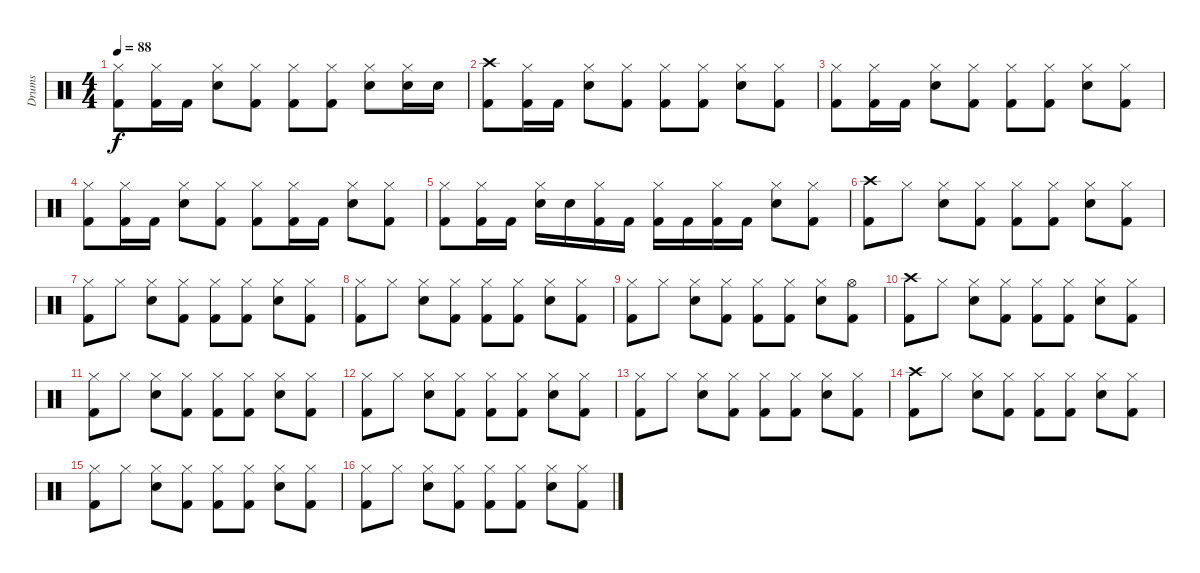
\track ("Drums" "Drums") {instrument percussion}
\staff {score}
\articulation defaults
\ts (4 4)
\tempo 88
\clef neutral
\ks c
("Hi-Hat (closed)" "Kick (hit) 2").8{dy f} ("Hi-Hat (closed)" "Kick (hit) 2").16 "Kick (hit) 2".16 ("Hi-Hat (closed)" "Electric Snare (hit)").8 ("Hi-Hat (closed)" "Kick (hit) 2").8 ("Hi-Hat (closed)" "Kick (hit) 2").8 ("Hi-Hat (closed)" "Kick (hit) 2").8 ("Hi-Hat (closed)" "Electric Snare (hit)").8 ("Hi-Hat (closed)" "Electric Snare (hit)").16 "Electric Snare (hit)".16 |
("Crash high (hit)" "Kick (hit) 2").8 ("Hi-Hat (closed)" "Kick (hit) 2").16 "Kick (hit) 2".16 ("Hi-Hat (closed)" "Electric Snare (hit)").8 ("Hi-Hat (closed)" "Kick (hit) 2").8 ("Hi-Hat (closed)" "Kick (hit) 2").8 ("Hi-Hat (closed)" "Kick (hit) 2").8 ("Hi-Hat (closed)" "Electric Snare (hit)").8 ("Hi-Hat (closed)" "Kick (hit) 2").8 |
("Hi-Hat (closed)" "Kick (hit) 2").8 ("Hi-Hat (closed)" "Kick (hit) 2").16 "Kick (hit) 2".16 ("Hi-Hat (closed)" "Electric Snare (hit)").8 ("Hi-Hat (closed)" "Kick (hit) 2").8 ("Hi-Hat (closed)" "Kick (hit) 2").8 ("Hi-Hat (closed)" "Kick (hit) 2").8 ("Hi-Hat (closed)" "Electric Snare (hit)").8 ("Hi-Hat (closed)" "Kick (hit) 2").8 |
("Hi-Hat (closed)" "Kick (hit) 2").8 ("Hi-Hat (closed)" "Kick (hit) 2").16 "Kick (hit) 2".16 ("Hi-Hat (closed)" "Electric Snare (hit)").8 ("Hi-Hat (closed)" "Kick (hit) 2").8 ("Hi-Hat (closed)" "Kick (hit) 2").8 ("Hi-Hat (closed)" "Kick (hit) 2").16 "Kick (hit) 2".16 ("Hi-Hat (closed)" "Electric Snare (hit)").8 ("Hi-Hat (closed)" "Kick (hit) 2").8 |
("Hi-Hat (closed)" "Kick (hit) 2").8 ("Hi-Hat (closed)" "Kick (hit) 2").16 "Kick (hit) 2".16 ("Hi-Hat (closed)" "Electric Snare (hit)").16 "Electric Snare (hit)".16 ("Hi-Hat (closed)" "Kick (hit) 2").16 "Kick (hit) 2".16 ("Hi-Hat (closed)" "Kick (hit) 2").16 "Kick (hit) 2".16 ("Hi-Hat (closed)" "Kick (hit) 2").16 "Kick (hit) 2".16 ("Hi-Hat (closed)" "Electric Snare (hit)").8 ("Hi-Hat (closed)" "Kick (hit) 2").8 |
("Crash high (hit)" "Kick (hit) 2").8 "Hi-Hat (closed)".8 ("Hi-Hat (closed)" "Electric Snare (hit)").8 ("Hi-Hat (closed)" "Kick (hit) 2").8 ("Hi-Hat (closed)" "Kick (hit) 2").8 ("Hi-Hat (closed)" "Kick (hit) 2").8 ("Hi-Hat (closed)" "Electric Snare (hit)").8 ("Hi-Hat (closed)" "Kick (hit) 2").8 |
("Hi-Hat (closed)" "Kick (hit) 2").8 "Hi-Hat (closed)".8 ("Hi-Hat (closed)" "Electric Snare (hit)").8 ("Hi-Hat (closed)" "Kick (hit) 2").8 ("Hi-Hat (closed)" "Kick (hit) 2").8 ("Hi-Hat (closed)" "Kick (hit) 2").8 ("Hi-Hat (closed)" "Electric Snare (hit)").8 ("Hi-Hat (closed)" "Kick (hit) 2").8 |
("Hi-Hat (closed)" "Kick (hit) 2").8 "Hi-Hat (closed)".8 ("Hi-Hat (closed)" "Electric Snare (hit)").8 ("Hi-Hat (closed)" "Kick (hit) 2").8 ("Hi-Hat (closed)" "Kick (hit) 2").8 ("Hi-Hat (closed)" "Kick (hit) 2").8 ("Hi-Hat (closed)" "Electric Snare (hit)").8 ("Hi-Hat (closed)" "Kick (hit) 2").8 |
("Hi-Hat (closed)" "Kick (hit) 2").8 "Hi-Hat (closed)".8 ("Hi-Hat (closed)" "Electric Snare (hit)").8 ("Hi-Hat (closed)" "Kick (hit) 2").8 ("Hi-Hat (closed)" "Kick (hit) 2").8 ("Hi-Hat (closed)" "Kick (hit) 2").8 ("Hi-Hat (closed)" "Electric Snare (hit)").8 ("Hi-Hat (open)" "Kick (hit) 2").8 |
("Crash high (hit)" "Kick (hit) 2").8 "Hi-Hat (closed)".8 ("Hi-Hat (closed)" "Electric Snare (hit)").8 ("Hi-Hat (closed)" "Kick (hit) 2").8 ("Hi-Hat (closed)" "Kick (hit) 2").8 ("Hi-Hat (closed)" "Kick (hit) 2").8 ("Hi-Hat (closed)" "Electric Snare (hit)").8 ("Hi-Hat (closed)" "Kick (hit) 2").8 |
("Hi-Hat (closed)" "Kick (hit) 2").8 "Hi-Hat (closed)".8 ("Hi-Hat (closed)" "Electric Snare (hit)").8 ("Hi-Hat (closed)" "Kick (hit) 2").8 ("Hi-Hat (closed)" "Kick (hit) 2").8 ("Hi-Hat (closed)" "Kick (hit) 2").8 ("Hi-Hat (closed)" "Electric Snare (hit)").8 ("Hi-Hat (closed)" "Kick (hit) 2").8 |
("Hi-Hat (closed)" "Kick (hit) 2").8 "Hi-Hat (closed)".8 ("Hi-Hat (closed)" "Electric Snare (hit)").8 ("Hi-Hat (closed)" "Kick (hit) 2").8 ("Hi-Hat (closed)" "Kick (hit) 2").8 ("Hi-Hat (closed)" "Kick (hit) 2").8 ("Hi-Hat (closed)" "Electric Snare (hit)").8 ("Hi-Hat (closed)" "Kick (hit) 2").8 |
("Hi-Hat (closed)" "Kick (hit) 2").8 "Hi-Hat (closed)".8 ("Hi-Hat (closed)" "Electric Snare (hit)").8 ("Hi-Hat (closed)" "Kick (hit) 2").8 ("Hi-Hat (closed)" "Kick (hit) 2").8 ("Hi-Hat (closed)" "Kick (hit) 2").8 ("Hi-Hat (closed)" "Electric Snare (hit)").8 ("Hi-Hat (closed)" "Kick (hit) 2").8 |
("Crash high (hit)" "Kick (hit) 2").8 "Hi-Hat (closed)".8 ("Hi-Hat (closed)" "Electric Snare (hit)").8 ("Hi-Hat (closed)" "Kick (hit) 2").8 ("Hi-Hat (closed)" "Kick (hit) 2").8 ("Hi-Hat (closed)" "Kick (hit) 2").8 ("Hi-Hat (closed)" "Electric Snare (hit)").8 ("Hi-Hat (closed)" "Kick (hit) 2").8 |
("Hi-Hat (closed)" "Kick (hit) 2").8 "Hi-Hat (closed)".8 ("Hi-Hat (closed)" "Electric Snare (hit)").8 ("Hi-Hat (closed)" "Kick (hit) 2").8 ("Hi-Hat (closed)" "Kick (hit) 2").8 ("Hi-Hat (closed)" "Kick (hit) 2").8 ("Hi-Hat (closed)" "Electric Snare (hit)").8 ("Hi-Hat (closed)" "Kick (hit) 2").8 |
("Hi-Hat (closed)" "Kick (hit) 2").8 "Hi-Hat (closed)".8 ("Hi-Hat (closed)" "Electric Snare (hit)").8 ("Hi-Hat (closed)" "Kick (hit) 2").8 ("Hi-Hat (closed)" "Kick (hit) 2").8 ("Hi-Hat (closed)" "Kick (hit) 2").8 ("Hi-Hat (closed)" "Electric Snare (hit)").8 ("Hi-Hat (closed)" "Kick (hit) 2").8
